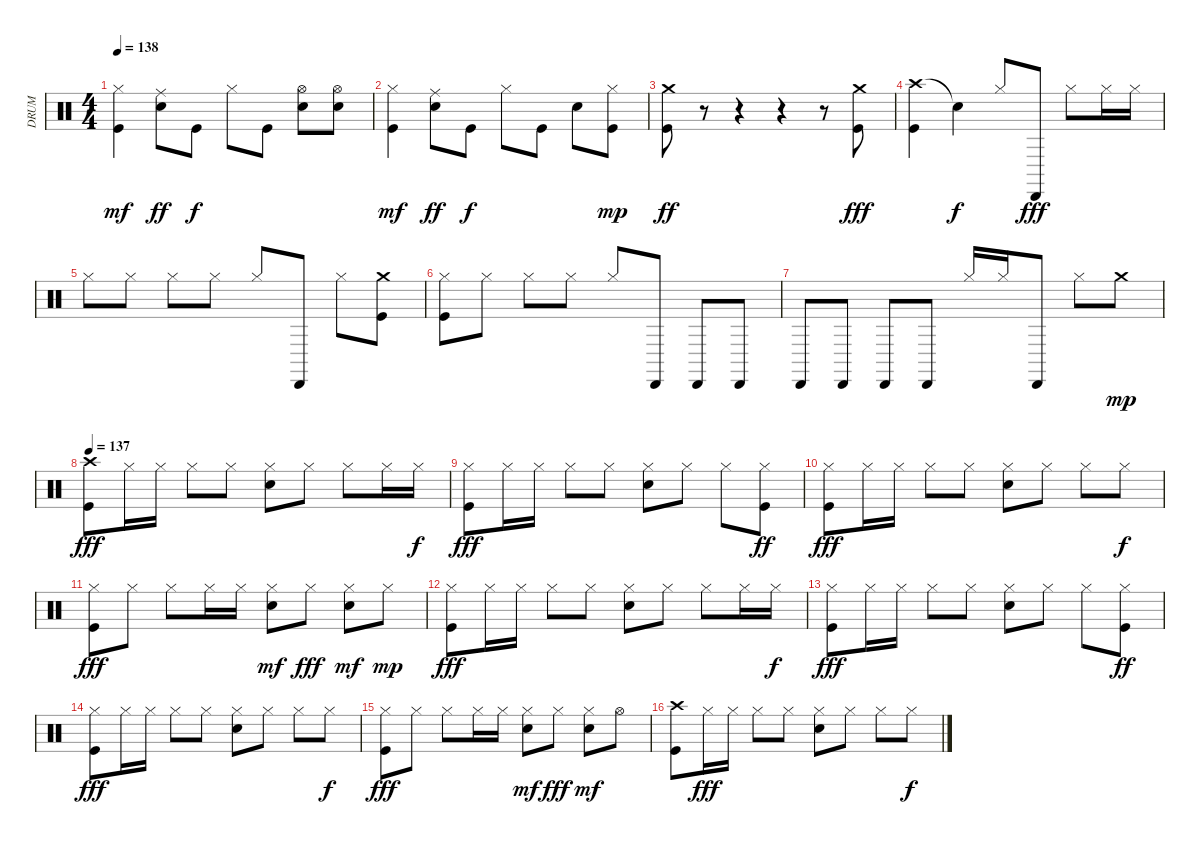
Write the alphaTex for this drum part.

\track ("DRUM" "DRUM") {instrument percussion}
\staff {score}
\articulation defaults
\ts (4 4)
\tempo 138
\clef neutral
\ks c
("Hi-Hat (closed)" "Kick (hit)").4{dy mf} ("Ride (middle)" "Snare (hit) 2").8{dy ff} "Kick (hit)".8{dy f} "Hi-Hat (closed)".8 "Kick (hit)".8 ("Snare (hit) 2" "Hi-Hat (open)").8 ("Snare (hit) 2" "Hi-Hat (open)").8 |
("Hi-Hat (closed)" "Kick (hit)").4{dy mf} ("Ride (middle)" "Snare (hit) 2").8{dy ff} "Kick (hit)".8{dy f} "Hi-Hat (closed)".8 "Kick (hit)".8 "Snare (hit) 2".8 ("Hi-Hat (closed)" "Kick (hit)").8{dy mp} |
("Crash medium (hit)" "Kick (hit)").8{dy ff} r.8 r.4 r.4 r.8 ("Crash medium (hit)" "Kick (hit)").8{dy fff} |
("Crash high (hit)" "Kick (hit)").4 "Snare (hit)"{t}.4{dy f} "Hi-Hat (closed)".8 "Cabasa (hit)".8{dy fff} "Hi-Hat (closed)".8 "Hi-Hat (closed)".16 "Hi-Hat (closed)".16 |
"Hi-Hat (closed)".8 "Hi-Hat (closed)".8 "Hi-Hat (closed)".8 "Hi-Hat (closed)".8 "Hi-Hat (closed)".8 "Cabasa (hit)".8 "Hi-Hat (closed)".8 ("Crash medium (hit)" "Kick (hit)").8 |
("Hi-Hat (closed)" "Kick (hit)").8 "Hi-Hat (closed)".8 "Hi-Hat (closed)".8 "Hi-Hat (closed)".8 "Hi-Hat (closed)".8 "Cabasa (hit)".8 "Cabasa (hit)".8 "Cabasa (hit)".8 |
"Cabasa (hit)".8 "Cabasa (hit)".8 "Cabasa (hit)".8 "Cabasa (hit)".8 "Hi-Hat (closed)".16 "Hi-Hat (closed)".16 "Cabasa (hit)".8 "Hi-Hat (closed)".8 "Crash medium (hit)".8{dy mp} |
\tempo 137
("Crash high (hit)" "Kick (hit)").8{dy fff} "Hi-Hat (closed)".16 "Hi-Hat (closed)".16 "Hi-Hat (closed)".8 "Hi-Hat (closed)".8 ("Hi-Hat (closed)" "Electric Snare (hit)").8 "Hi-Hat (closed)".8 "Hi-Hat (closed)".8 "Hi-Hat (closed)".16 "Hi-Hat (closed)".16{dy f} |
("Kick (hit)" "Hi-Hat (closed)").8{dy fff} "Hi-Hat (closed)".16 "Hi-Hat (closed)".16 "Hi-Hat (closed)".8 "Hi-Hat (closed)".8 ("Hi-Hat (closed)" "Electric Snare (hit)").8 "Hi-Hat (closed)".8 "Hi-Hat (closed)".8 ("Hi-Hat (closed)" "Kick (hit)").8{dy ff} |
("Kick (hit)" "Hi-Hat (closed)").8{dy fff} "Hi-Hat (closed)".16 "Hi-Hat (closed)".16 "Hi-Hat (closed)".8 "Hi-Hat (closed)".8 ("Hi-Hat (closed)" "Electric Snare (hit)").8 "Hi-Hat (closed)".8 "Hi-Hat (closed)".8 "Hi-Hat (closed)".8{dy f} |
("Hi-Hat (closed)" "Kick (hit)").8{dy fff} "Hi-Hat (closed)".8 "Hi-Hat (closed)".8 "Hi-Hat (closed)".16 "Hi-Hat (closed)".16 ("Hi-Hat (closed)" "Electric Snare (hit)").8{dy mf} "Hi-Hat (closed)".8{dy fff} ("Hi-Hat (closed)" "Electric Snare (hit)").8{dy mf} "Hi-Hat (closed)".8{dy mp} |
("Hi-Hat (closed)" "Kick (hit)").8{dy fff} "Hi-Hat (closed)".16 "Hi-Hat (closed)".16 "Hi-Hat (closed)".8 "Hi-Hat (closed)".8 ("Hi-Hat (closed)" "Electric Snare (hit)").8 "Hi-Hat (closed)".8 "Hi-Hat (closed)".8 "Hi-Hat (closed)".16 "Hi-Hat (closed)".16{dy f} |
("Kick (hit)" "Hi-Hat (closed)").8{dy fff} "Hi-Hat (closed)".16 "Hi-Hat (closed)".16 "Hi-Hat (closed)".8 "Hi-Hat (closed)".8 ("Hi-Hat (closed)" "Electric Snare (hit)").8 "Hi-Hat (closed)".8 "Hi-Hat (closed)".8 ("Hi-Hat (closed)" "Kick (hit)").8{dy ff} |
("Kick (hit)" "Hi-Hat (closed)").8{dy fff} "Hi-Hat (closed)".16 "Hi-Hat (closed)".16 "Hi-Hat (closed)".8 "Hi-Hat (closed)".8 ("Hi-Hat (closed)" "Electric Snare (hit)").8 "Hi-Hat (closed)".8 "Hi-Hat (closed)".8 "Hi-Hat (closed)".8{dy f} |
("Hi-Hat (closed)" "Kick (hit)").8{dy fff} "Hi-Hat (closed)".8 "Hi-Hat (closed)".8 "Hi-Hat (closed)".16 "Hi-Hat (closed)".16 ("Hi-Hat (closed)" "Electric Snare (hit)").8{dy mf} "Hi-Hat (closed)".8{dy fff} ("Hi-Hat (closed)" "Electric Snare (hit)").8{dy mf} "Hi-Hat (open)".8 |
("Kick (hit)" "Crash high (hit)").8 "Hi-Hat (closed)".16{dy fff} "Hi-Hat (closed)".16 "Hi-Hat (closed)".8 "Hi-Hat (closed)".8 ("Hi-Hat (closed)" "Electric Snare (hit)").8 "Hi-Hat (closed)".8 "Hi-Hat (closed)".8 "Hi-Hat (closed)".8{dy f}
